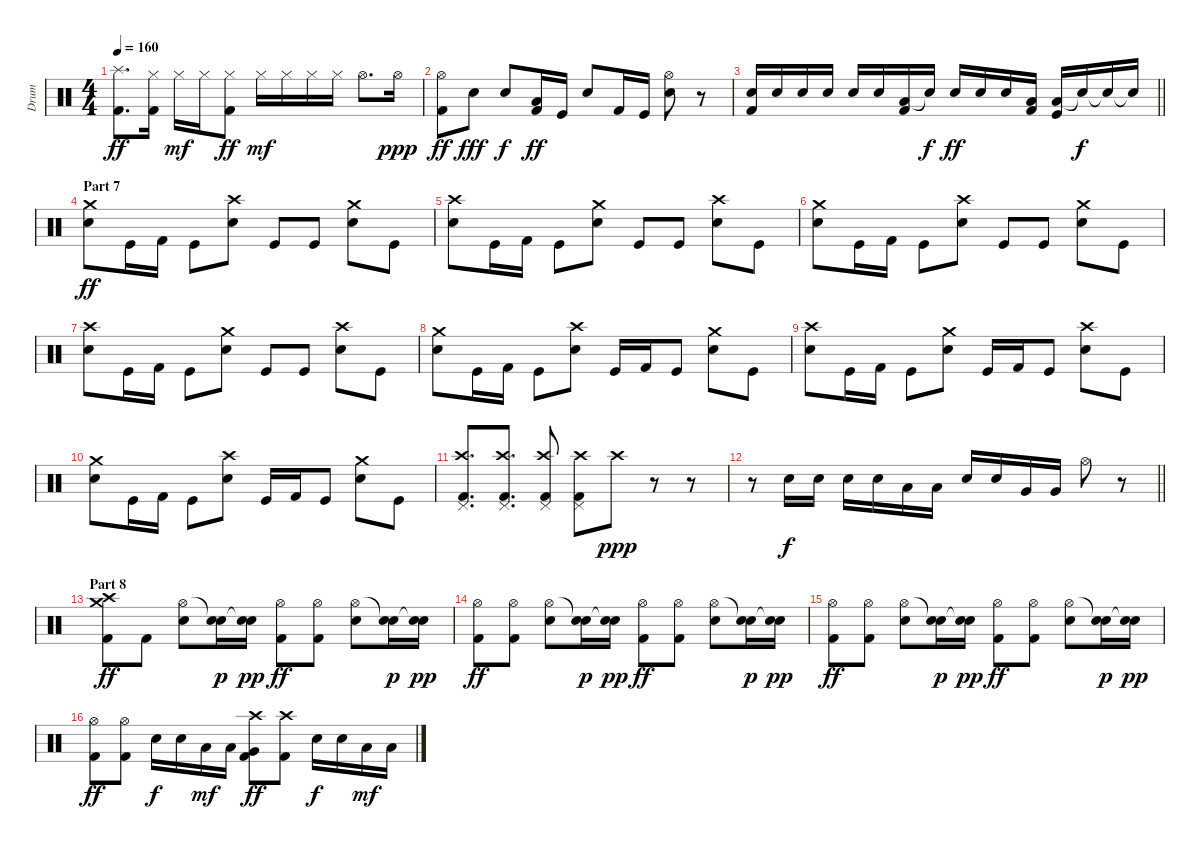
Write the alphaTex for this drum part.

\track ("Drum" "Drum") {instrument percussion}
\staff {score}
\articulation defaults
\ts (4 4)
\tempo 160
\clef neutral
\ks c
("Splash (hit)" "Kick (hit) 2").8{d dy ff} ("Hi-Hat (closed)" "Kick (hit) 2").16 "Hi-Hat (closed)".16{dy mf} "Hi-Hat (closed)".16 ("Hi-Hat (closed)" "Kick (hit) 2").8{dy ff} "Hi-Hat (closed)".16{dy mf} "Hi-Hat (closed)".16 "Hi-Hat (closed)".16 "Hi-Hat (closed)".16 "Hi-Hat (open)".8{d} "Hi-Hat (open)".16{dy ppp} |
("Hi-Hat (open)" "Kick (hit) 2").8{dy ff} "Snare (hit) 2".8{dy fff} "Snare (hit) 2".8{dy f} ("Low Tom (hit)" "Kick (hit) 2").16{dy ff} "Kick (hit)".16 "Electric Snare (hit)".8 "Kick (hit) 2".16 "Kick (hit)".16 ("Electric Snare (hit)" "Hi-Hat (open)").8 r.8 |
\barLineRight lightlight
("Electric Snare (hit)" "Kick (hit) 2").16 "Electric Snare (hit)".16 "Electric Snare (hit)".16 "Electric Snare (hit)".16 "Electric Snare (hit)".16 "Electric Snare (hit)".16 ("Low Tom (hit)" "Kick (hit) 2").16 "Snare (hit)"{t}.16{dy f} "Electric Snare (hit)".16{dy ff} "Electric Snare (hit)".16 "Electric Snare (hit)".16 ("Low Tom (hit)" "Kick (hit) 2").16 ("Low Tom (hit)" "Kick (hit)").16 "Snare (hit)"{t}.16{dy f} "Snare (hit)"{t}.16 "Snare (hit)"{t}.16 |
\section ("" "Part 7")
("Crash medium (hit)" "Electric Snare (hit)").8{dy ff} "Kick (hit)".16 "Kick (hit) 2".16 "Kick (hit)".8 ("Crash high (hit)" "Electric Snare (hit)").8 "Kick (hit)".8 "Kick (hit)".8 ("Crash medium (hit)" "Electric Snare (hit)").8 "Kick (hit)".8 |
("Crash high (hit)" "Electric Snare (hit)").8 "Kick (hit)".16 "Kick (hit) 2".16 "Kick (hit)".8 ("Crash medium (hit)" "Electric Snare (hit)").8 "Kick (hit)".8 "Kick (hit)".8 ("Crash high (hit)" "Electric Snare (hit)").8 "Kick (hit)".8 |
("Crash medium (hit)" "Electric Snare (hit)").8 "Kick (hit)".16 "Kick (hit) 2".16 "Kick (hit)".8 ("Crash high (hit)" "Electric Snare (hit)").8 "Kick (hit)".8 "Kick (hit)".8 ("Crash medium (hit)" "Electric Snare (hit)").8 "Kick (hit)".8 |
("Crash high (hit)" "Electric Snare (hit)").8 "Kick (hit)".16 "Kick (hit) 2".16 "Kick (hit)".8 ("Crash medium (hit)" "Electric Snare (hit)").8 "Kick (hit)".8 "Kick (hit)".8 ("Crash high (hit)" "Electric Snare (hit)").8 "Kick (hit)".8 |
("Crash medium (hit)" "Electric Snare (hit)").8 "Kick (hit)".16 "Kick (hit) 2".16 "Kick (hit)".8 ("Crash high (hit)" "Electric Snare (hit)").8 "Kick (hit)".16 "Kick (hit) 2".16 "Kick (hit)".8 ("Crash medium (hit)" "Electric Snare (hit)").8 "Kick (hit)".8 |
("Crash high (hit)" "Electric Snare (hit)").8 "Kick (hit)".16 "Kick (hit) 2".16 "Kick (hit)".8 ("Crash medium (hit)" "Electric Snare (hit)").8 "Kick (hit)".16 "Kick (hit) 2".16 "Kick (hit)".8 ("Crash high (hit)" "Electric Snare (hit)").8 "Kick (hit)".8 |
("Crash medium (hit)" "Electric Snare (hit)").8 "Kick (hit)".16 "Kick (hit) 2".16 "Kick (hit)".8 ("Crash high (hit)" "Electric Snare (hit)").8 "Kick (hit)".16 "Kick (hit) 2".16 "Kick (hit)".8 ("Crash medium (hit)" "Electric Snare (hit)").8 "Kick (hit)".8 |
("Crash high (hit)" "Pedal Hi-Hat (hit)" "Kick (hit) 2").8{d} ("Crash high (hit)" "Pedal Hi-Hat (hit)" "Kick (hit) 2").8{d} ("Crash high (hit)" "Pedal Hi-Hat (hit)" "Kick (hit) 2").8 ("Crash high (hit)" "Pedal Hi-Hat (hit)" "Kick (hit) 2").8 "Crash high (hit)".8{dy ppp} r.8 r.8 |
\barLineRight lightlight
r.8 "Electric Snare (hit)".16{dy f} "Electric Snare (hit)".16 "Electric Snare (hit)".16 "Electric Snare (hit)".16 "Low Tom (hit)".16 "Low Tom (hit)".16 "Electric Snare (hit)".16 "Electric Snare (hit)".16 "Very Low Tom (hit)".16 "Very Low Tom (hit)".16 "Hi-Hat (open)".8 r.8 |
\section ("" "Part 8")
("Crash high (hit)" "Crash medium (hit)" "Kick (hit) 2").8{dy ff} "Kick (hit) 2".8 ("Electric Snare (hit)" "Hi-Hat (open)").8 ("Electric Snare (hit)" "Snare (hit)"{t}).16{dy p} ("Electric Snare (hit)" "Snare (hit)"{t}).16{dy pp} ("Hi-Hat (open)" "Kick (hit) 2").8{dy ff} ("Hi-Hat (open)" "Kick (hit) 2").8 ("Electric Snare (hit)" "Hi-Hat (open)").8 ("Electric Snare (hit)" "Snare (hit)"{t}).16{dy p} ("Electric Snare (hit)" "Snare (hit)"{t}).16{dy pp} |
("Hi-Hat (open)" "Kick (hit) 2").8{dy ff} ("Hi-Hat (open)" "Kick (hit) 2").8 ("Electric Snare (hit)" "Hi-Hat (open)").8 ("Electric Snare (hit)" "Snare (hit)"{t}).16{dy p} ("Electric Snare (hit)" "Snare (hit)"{t}).16{dy pp} ("Hi-Hat (open)" "Kick (hit) 2").8{dy ff} ("Hi-Hat (open)" "Kick (hit) 2").8 ("Electric Snare (hit)" "Hi-Hat (open)").8 ("Electric Snare (hit)" "Snare (hit)"{t}).16{dy p} ("Electric Snare (hit)" "Snare (hit)"{t}).16{dy pp} |
("Hi-Hat (open)" "Kick (hit) 2").8{dy ff} ("Hi-Hat (open)" "Kick (hit) 2").8 ("Electric Snare (hit)" "Hi-Hat (open)").8 ("Electric Snare (hit)" "Snare (hit)"{t}).16{dy p} ("Electric Snare (hit)" "Snare (hit)"{t}).16{dy pp} ("Hi-Hat (open)" "Kick (hit) 2").8{dy ff} ("Hi-Hat (open)" "Kick (hit) 2").8 ("Electric Snare (hit)" "Hi-Hat (open)").8 ("Electric Snare (hit)" "Snare (hit)"{t}).16{dy p} ("Electric Snare (hit)" "Snare (hit)"{t}).16{dy pp} |
("Hi-Hat (open)" "Kick (hit) 2").8{dy ff} ("Hi-Hat (open)" "Kick (hit) 2").8 "Electric Snare (hit)".16{dy f} "Electric Snare (hit)".16 "Low Tom (hit)".16{dy mf} "Low Tom (hit)".16 ("Crash high (hit)" "Very Low Tom (hit)" "Kick (hit) 2").8{dy ff} ("Crash high (hit)" "Kick (hit) 2").8 "Electric Snare (hit)".16{dy f} "Electric Snare (hit)".16 "Low Tom (hit)".16{dy mf} "Low Tom (hit)".16
